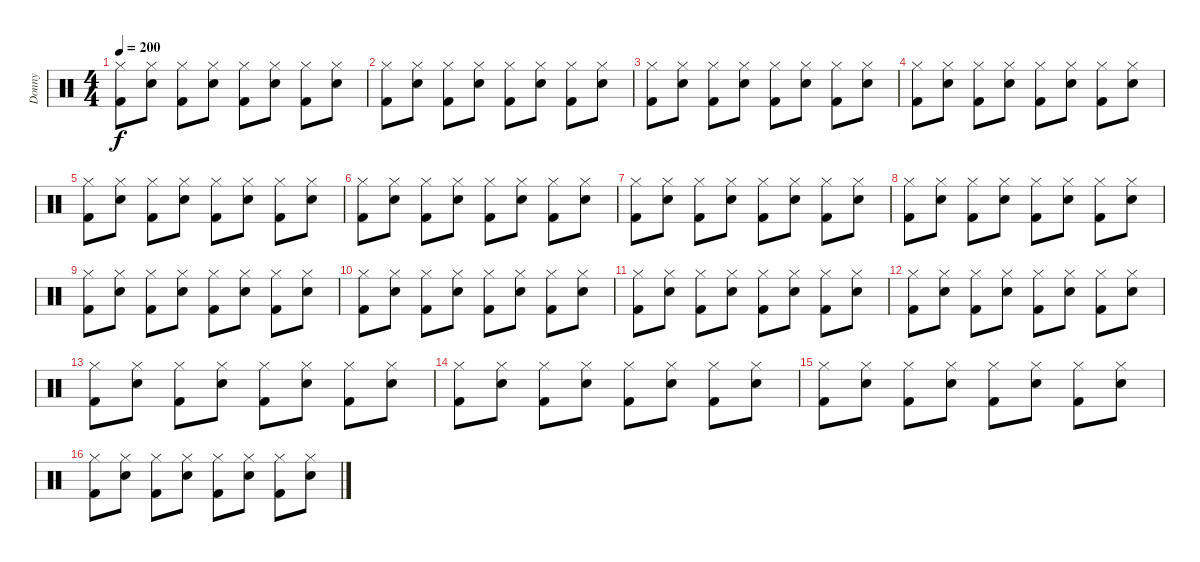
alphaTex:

\track ("Donny" "Donny") {instrument percussion}
\staff {score}
\articulation defaults
\ts (4 4)
\tempo 200
\clef neutral
\ks c
("Hi-Hat (closed)" "Kick (hit) 2").8{dy f} ("Hi-Hat (closed)" "Electric Snare (hit)").8 ("Hi-Hat (closed)" "Kick (hit) 2").8 ("Hi-Hat (closed)" "Electric Snare (hit)").8 ("Hi-Hat (closed)" "Kick (hit) 2").8 ("Hi-Hat (closed)" "Electric Snare (hit)").8 ("Hi-Hat (closed)" "Kick (hit) 2").8 ("Hi-Hat (closed)" "Electric Snare (hit)").8 |
("Hi-Hat (closed)" "Kick (hit) 2").8 ("Hi-Hat (closed)" "Electric Snare (hit)").8 ("Hi-Hat (closed)" "Kick (hit) 2").8 ("Hi-Hat (closed)" "Electric Snare (hit)").8 ("Hi-Hat (closed)" "Kick (hit) 2").8 ("Hi-Hat (closed)" "Electric Snare (hit)").8 ("Hi-Hat (closed)" "Kick (hit) 2").8 ("Hi-Hat (closed)" "Electric Snare (hit)").8 |
("Hi-Hat (closed)" "Kick (hit) 2").8 ("Hi-Hat (closed)" "Electric Snare (hit)").8 ("Hi-Hat (closed)" "Kick (hit) 2").8 ("Hi-Hat (closed)" "Electric Snare (hit)").8 ("Hi-Hat (closed)" "Kick (hit) 2").8 ("Hi-Hat (closed)" "Electric Snare (hit)").8 ("Hi-Hat (closed)" "Kick (hit) 2").8 ("Hi-Hat (closed)" "Electric Snare (hit)").8 |
("Hi-Hat (closed)" "Kick (hit) 2").8 ("Hi-Hat (closed)" "Electric Snare (hit)").8 ("Hi-Hat (closed)" "Kick (hit) 2").8 ("Hi-Hat (closed)" "Electric Snare (hit)").8 ("Hi-Hat (closed)" "Kick (hit) 2").8 ("Hi-Hat (closed)" "Electric Snare (hit)").8 ("Hi-Hat (closed)" "Kick (hit) 2").8 ("Hi-Hat (closed)" "Electric Snare (hit)").8 |
("Hi-Hat (closed)" "Kick (hit) 2").8 ("Hi-Hat (closed)" "Electric Snare (hit)").8 ("Hi-Hat (closed)" "Kick (hit) 2").8 ("Hi-Hat (closed)" "Electric Snare (hit)").8 ("Hi-Hat (closed)" "Kick (hit) 2").8 ("Hi-Hat (closed)" "Electric Snare (hit)").8 ("Hi-Hat (closed)" "Kick (hit) 2").8 ("Hi-Hat (closed)" "Electric Snare (hit)").8 |
("Hi-Hat (closed)" "Kick (hit) 2").8 ("Hi-Hat (closed)" "Electric Snare (hit)").8 ("Hi-Hat (closed)" "Kick (hit) 2").8 ("Hi-Hat (closed)" "Electric Snare (hit)").8 ("Hi-Hat (closed)" "Kick (hit) 2").8 ("Hi-Hat (closed)" "Electric Snare (hit)").8 ("Hi-Hat (closed)" "Kick (hit) 2").8 ("Hi-Hat (closed)" "Electric Snare (hit)").8 |
("Hi-Hat (closed)" "Kick (hit) 2").8 ("Hi-Hat (closed)" "Electric Snare (hit)").8 ("Hi-Hat (closed)" "Kick (hit) 2").8 ("Hi-Hat (closed)" "Electric Snare (hit)").8 ("Hi-Hat (closed)" "Kick (hit) 2").8 ("Hi-Hat (closed)" "Electric Snare (hit)").8 ("Hi-Hat (closed)" "Kick (hit) 2").8 ("Hi-Hat (closed)" "Electric Snare (hit)").8 |
("Hi-Hat (closed)" "Kick (hit) 2").8 ("Hi-Hat (closed)" "Electric Snare (hit)").8 ("Hi-Hat (closed)" "Kick (hit) 2").8 ("Hi-Hat (closed)" "Electric Snare (hit)").8 ("Hi-Hat (closed)" "Kick (hit) 2").8 ("Hi-Hat (closed)" "Electric Snare (hit)").8 ("Hi-Hat (closed)" "Kick (hit) 2").8 ("Hi-Hat (closed)" "Electric Snare (hit)").8 |
("Hi-Hat (closed)" "Kick (hit) 2").8 ("Hi-Hat (closed)" "Electric Snare (hit)").8 ("Hi-Hat (closed)" "Kick (hit) 2").8 ("Hi-Hat (closed)" "Electric Snare (hit)").8 ("Hi-Hat (closed)" "Kick (hit) 2").8 ("Hi-Hat (closed)" "Electric Snare (hit)").8 ("Hi-Hat (closed)" "Kick (hit) 2").8 ("Hi-Hat (closed)" "Electric Snare (hit)").8 |
("Hi-Hat (closed)" "Kick (hit) 2").8 ("Hi-Hat (closed)" "Electric Snare (hit)").8 ("Hi-Hat (closed)" "Kick (hit) 2").8 ("Hi-Hat (closed)" "Electric Snare (hit)").8 ("Hi-Hat (closed)" "Kick (hit) 2").8 ("Hi-Hat (closed)" "Electric Snare (hit)").8 ("Hi-Hat (closed)" "Kick (hit) 2").8 ("Hi-Hat (closed)" "Electric Snare (hit)").8 |
("Hi-Hat (closed)" "Kick (hit) 2").8 ("Hi-Hat (closed)" "Electric Snare (hit)").8 ("Hi-Hat (closed)" "Kick (hit) 2").8 ("Hi-Hat (closed)" "Electric Snare (hit)").8 ("Hi-Hat (closed)" "Kick (hit) 2").8 ("Hi-Hat (closed)" "Electric Snare (hit)").8 ("Hi-Hat (closed)" "Kick (hit) 2").8 ("Hi-Hat (closed)" "Electric Snare (hit)").8 |
("Hi-Hat (closed)" "Kick (hit) 2").8 ("Hi-Hat (closed)" "Electric Snare (hit)").8 ("Hi-Hat (closed)" "Kick (hit) 2").8 ("Hi-Hat (closed)" "Electric Snare (hit)").8 ("Hi-Hat (closed)" "Kick (hit) 2").8 ("Hi-Hat (closed)" "Electric Snare (hit)").8 ("Hi-Hat (closed)" "Kick (hit) 2").8 ("Hi-Hat (closed)" "Electric Snare (hit)").8 |
("Hi-Hat (closed)" "Kick (hit) 2").8 ("Hi-Hat (closed)" "Electric Snare (hit)").8 ("Hi-Hat (closed)" "Kick (hit) 2").8 ("Hi-Hat (closed)" "Electric Snare (hit)").8 ("Hi-Hat (closed)" "Kick (hit) 2").8 ("Hi-Hat (closed)" "Electric Snare (hit)").8 ("Hi-Hat (closed)" "Kick (hit) 2").8 ("Hi-Hat (closed)" "Electric Snare (hit)").8 |
("Hi-Hat (closed)" "Kick (hit) 2").8 ("Hi-Hat (closed)" "Electric Snare (hit)").8 ("Hi-Hat (closed)" "Kick (hit) 2").8 ("Hi-Hat (closed)" "Electric Snare (hit)").8 ("Hi-Hat (closed)" "Kick (hit) 2").8 ("Hi-Hat (closed)" "Electric Snare (hit)").8 ("Hi-Hat (closed)" "Kick (hit) 2").8 ("Hi-Hat (closed)" "Electric Snare (hit)").8 |
("Hi-Hat (closed)" "Kick (hit) 2").8 ("Hi-Hat (closed)" "Electric Snare (hit)").8 ("Hi-Hat (closed)" "Kick (hit) 2").8 ("Hi-Hat (closed)" "Electric Snare (hit)").8 ("Hi-Hat (closed)" "Kick (hit) 2").8 ("Hi-Hat (closed)" "Electric Snare (hit)").8 ("Hi-Hat (closed)" "Kick (hit) 2").8 ("Hi-Hat (closed)" "Electric Snare (hit)").8 |
("Hi-Hat (closed)" "Kick (hit) 2").8 ("Hi-Hat (closed)" "Electric Snare (hit)").8 ("Hi-Hat (closed)" "Kick (hit) 2").8 ("Hi-Hat (closed)" "Electric Snare (hit)").8 ("Hi-Hat (closed)" "Kick (hit) 2").8 ("Hi-Hat (closed)" "Electric Snare (hit)").8 ("Hi-Hat (closed)" "Kick (hit) 2").8 ("Hi-Hat (closed)" "Electric Snare (hit)").8
